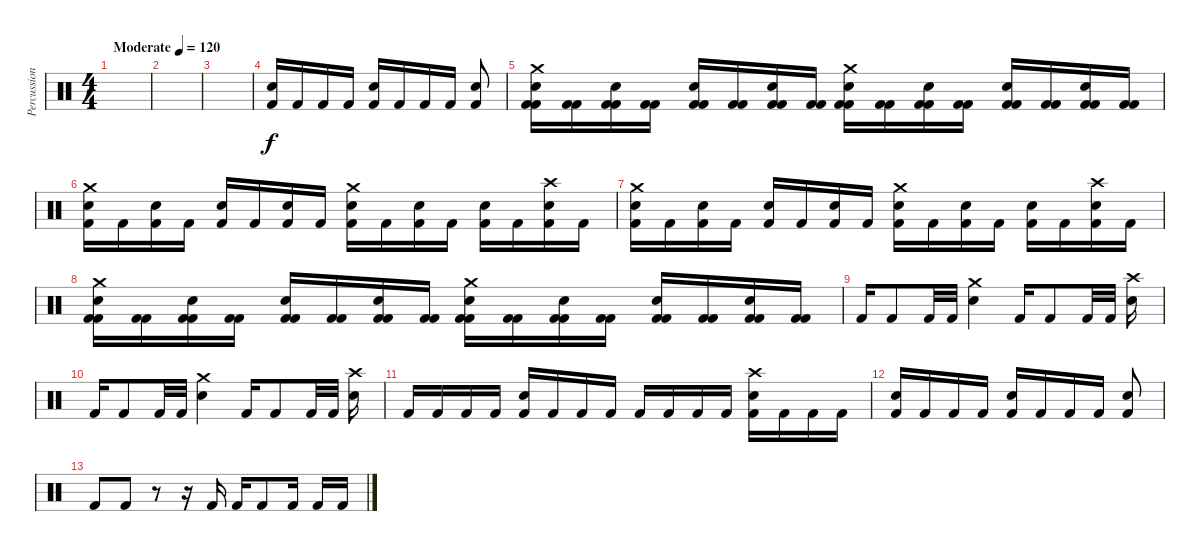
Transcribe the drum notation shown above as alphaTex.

\track ("Percussion" "Percussion") {instrument percussion}
\staff {score}
\articulation defaults
\ts (4 4)
\tempo (120 "Moderate")
\clef neutral
\ks c
|
|
|
("Snare (hit) 2" "Kick (hit) 2").16 "Kick (hit) 2".16 "Kick (hit) 2".16 "Kick (hit) 2".16 ("Snare (hit) 2" "Kick (hit) 2").16 "Kick (hit) 2".16 "Kick (hit) 2".16 "Kick (hit) 2".16 ("Snare (hit) 2" "Kick (hit) 2").8 |
("Crash medium (hit)" "Snare (hit) 2" "Kick (hit) 2" "Kick (hit) 2").16 ("Kick (hit) 2" "Kick (hit) 2").16 ("Snare (hit) 2" "Kick (hit) 2" "Kick (hit) 2").16 ("Kick (hit) 2" "Kick (hit) 2").16 ("Snare (hit) 2" "Kick (hit) 2" "Kick (hit) 2").16 ("Kick (hit) 2" "Kick (hit) 2").16 ("Snare (hit) 2" "Kick (hit) 2" "Kick (hit) 2").16 ("Kick (hit) 2" "Kick (hit) 2").16 ("Crash medium (hit)" "Snare (hit) 2" "Kick (hit) 2" "Kick (hit) 2").16 ("Kick (hit) 2" "Kick (hit) 2").16 ("Snare (hit) 2" "Kick (hit) 2" "Kick (hit) 2").16 ("Kick (hit) 2" "Kick (hit) 2").16 ("Snare (hit) 2" "Kick (hit) 2" "Kick (hit) 2").16 ("Kick (hit) 2" "Kick (hit) 2").16 ("Snare (hit) 2" "Kick (hit) 2" "Kick (hit) 2").16 ("Kick (hit) 2" "Kick (hit) 2").16 |
("Crash medium (hit)" "Snare (hit) 2" "Kick (hit) 2").16 "Kick (hit) 2".16 ("Snare (hit) 2" "Kick (hit) 2").16 "Kick (hit) 2".16 ("Snare (hit) 2" "Kick (hit) 2").16 "Kick (hit) 2".16 ("Snare (hit) 2" "Kick (hit) 2").16 "Kick (hit) 2".16 ("Crash medium (hit)" "Snare (hit) 2" "Kick (hit) 2").16 "Kick (hit) 2".16 ("Snare (hit) 2" "Kick (hit) 2").16 "Kick (hit) 2".16 ("Snare (hit) 2" "Kick (hit) 2").16 "Kick (hit) 2".16 ("Crash high (hit)" "Snare (hit) 2" "Kick (hit) 2").16 "Kick (hit) 2".16 |
("Crash medium (hit)" "Snare (hit) 2" "Kick (hit) 2").16 "Kick (hit) 2".16 ("Snare (hit) 2" "Kick (hit) 2").16 "Kick (hit) 2".16 ("Snare (hit) 2" "Kick (hit) 2").16 "Kick (hit) 2".16 ("Snare (hit) 2" "Kick (hit) 2").16 "Kick (hit) 2".16 ("Crash medium (hit)" "Snare (hit) 2" "Kick (hit) 2").16 "Kick (hit) 2".16 ("Snare (hit) 2" "Kick (hit) 2").16 "Kick (hit) 2".16 ("Snare (hit) 2" "Kick (hit) 2").16 "Kick (hit) 2".16 ("Crash high (hit)" "Snare (hit) 2" "Kick (hit) 2").16 "Kick (hit) 2".16 |
("Crash medium (hit)" "Snare (hit) 2" "Kick (hit) 2" "Kick (hit) 2").16 ("Kick (hit) 2" "Kick (hit) 2").16 ("Snare (hit) 2" "Kick (hit) 2" "Kick (hit) 2").16 ("Kick (hit) 2" "Kick (hit) 2").16 ("Snare (hit) 2" "Kick (hit) 2" "Kick (hit) 2").16 ("Kick (hit) 2" "Kick (hit) 2").16 ("Snare (hit) 2" "Kick (hit) 2" "Kick (hit) 2").16 ("Kick (hit) 2" "Kick (hit) 2").16 ("Crash medium (hit)" "Snare (hit) 2" "Kick (hit) 2" "Kick (hit) 2").16 ("Kick (hit) 2" "Kick (hit) 2").16 ("Snare (hit) 2" "Kick (hit) 2" "Kick (hit) 2").16 ("Kick (hit) 2" "Kick (hit) 2").16 ("Snare (hit) 2" "Kick (hit) 2" "Kick (hit) 2").16 ("Kick (hit) 2" "Kick (hit) 2").16 ("Snare (hit) 2" "Kick (hit) 2" "Kick (hit) 2").16 ("Kick (hit) 2" "Kick (hit) 2").16 |
"Kick (hit) 2".16 "Kick (hit) 2".8 "Kick (hit) 2".32 "Kick (hit) 2".32 ("Crash medium (hit)" "Snare (hit) 2").4 "Kick (hit) 2".16 "Kick (hit) 2".8 "Kick (hit) 2".32 "Kick (hit) 2".32 ("Crash high (hit)" "Snare (hit) 2").16 |
"Kick (hit) 2".16 "Kick (hit) 2".8 "Kick (hit) 2".32 "Kick (hit) 2".32 ("Crash medium (hit)" "Snare (hit) 2").4 "Kick (hit) 2".16 "Kick (hit) 2".8 "Kick (hit) 2".32 "Kick (hit) 2".32 ("Crash high (hit)" "Snare (hit) 2").16 |
"Kick (hit) 2".16 "Kick (hit) 2".16 "Kick (hit) 2".16 "Kick (hit) 2".16 ("Snare (hit) 2" "Kick (hit) 2").16 "Kick (hit) 2".16 "Kick (hit) 2".16 "Kick (hit) 2".16 "Kick (hit) 2".16 "Kick (hit) 2".16 "Kick (hit) 2".16 "Kick (hit) 2".16 ("Crash high (hit)" "Snare (hit) 2" "Kick (hit) 2").16 "Kick (hit) 2".16 "Kick (hit) 2".16 "Kick (hit) 2".16 |
("Snare (hit) 2" "Kick (hit) 2").16 "Kick (hit) 2".16 "Kick (hit) 2".16 "Kick (hit) 2".16 ("Snare (hit) 2" "Kick (hit) 2").16 "Kick (hit) 2".16 "Kick (hit) 2".16 "Kick (hit) 2".16 ("Snare (hit) 2" "Kick (hit) 2").8 |
"Kick (hit) 2".8 "Kick (hit) 2".8 r.8 r.16 "Kick (hit) 2".16 "Kick (hit) 2".16 "Kick (hit) 2".8 "Kick (hit) 2".16 "Kick (hit) 2".16 "Kick (hit) 2".16
